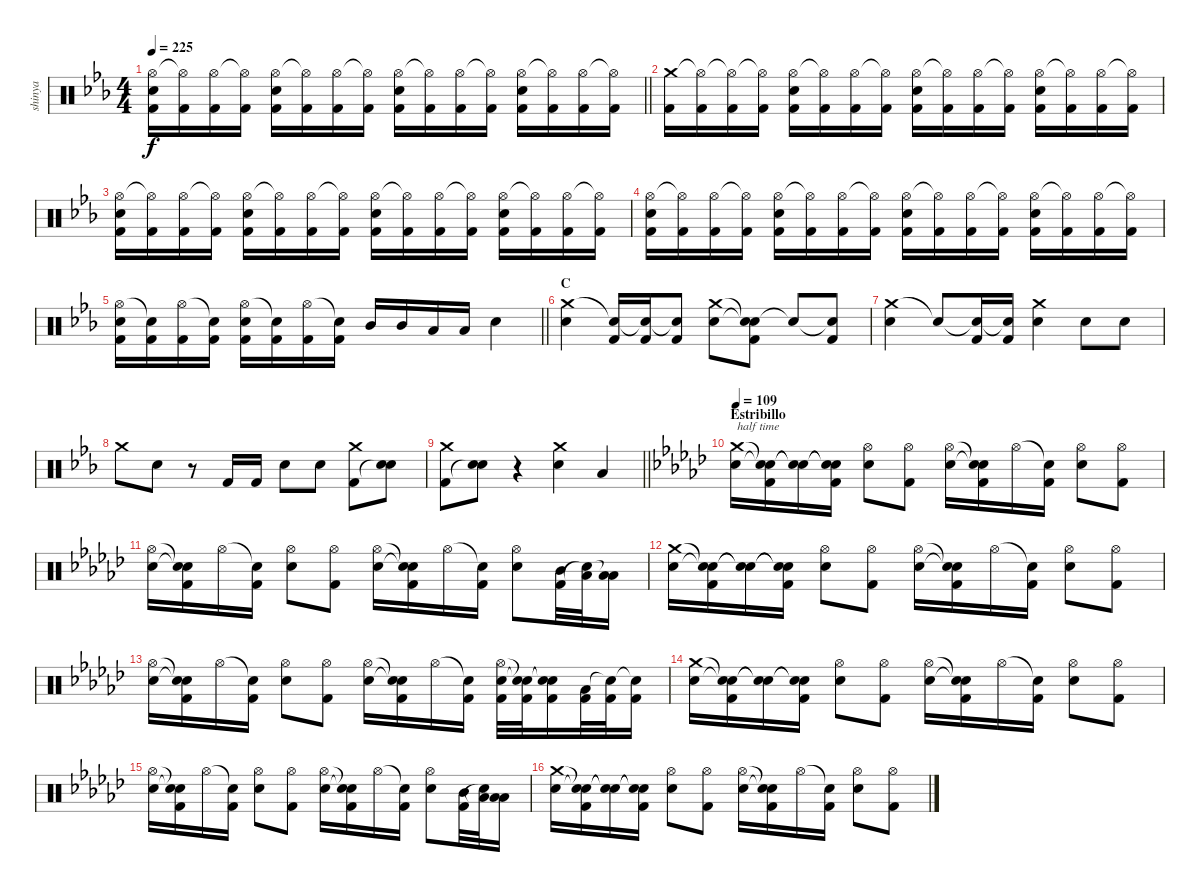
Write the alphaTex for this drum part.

\track ("shinya" "shinya") {instrument percussion}
\staff {score}
\articulation defaults
\ts (4 4)
\tempo 225
\clef neutral
\barLineRight lightlight
\ks eb
("Hi-Hat (open)" "Electric Snare (hit)" "Kick (hit) 2").16{dy f} ("Hi-Hat (open)"{t} "Kick (hit) 2").16 ("Hi-Hat (open)" "Kick (hit) 2").16 ("Hi-Hat (open)"{t} "Kick (hit) 2").16 ("Hi-Hat (open)" "Electric Snare (hit)" "Kick (hit) 2").16 ("Hi-Hat (open)"{t} "Kick (hit) 2").16 ("Hi-Hat (open)" "Kick (hit) 2").16 ("Hi-Hat (open)"{t} "Kick (hit) 2").16 ("Hi-Hat (open)" "Electric Snare (hit)" "Kick (hit) 2").16 ("Hi-Hat (open)"{t} "Kick (hit) 2").16 ("Hi-Hat (open)" "Kick (hit) 2").16 ("Hi-Hat (open)"{t} "Kick (hit) 2").16 ("Hi-Hat (open)" "Electric Snare (hit)" "Kick (hit) 2").16 ("Hi-Hat (open)"{t} "Kick (hit) 2").16 ("Hi-Hat (open)" "Kick (hit) 2").16 ("Hi-Hat (open)"{t} "Kick (hit) 2").16 |
("Crash medium (hit)" "Kick (hit) 2").16 ("Hi-Hat (open)"{t} "Kick (hit) 2").16 ("Hi-Hat (open)"{t} "Kick (hit) 2").16 ("Hi-Hat (open)"{t} "Kick (hit) 2").16 ("Hi-Hat (open)" "Electric Snare (hit)" "Kick (hit) 2").16 ("Hi-Hat (open)"{t} "Kick (hit) 2").16 ("Hi-Hat (open)" "Kick (hit) 2").16 ("Hi-Hat (open)"{t} "Kick (hit) 2").16 ("Hi-Hat (open)" "Electric Snare (hit)" "Kick (hit) 2").16 ("Hi-Hat (open)"{t} "Kick (hit) 2").16 ("Hi-Hat (open)" "Kick (hit) 2").16 ("Hi-Hat (open)"{t} "Kick (hit) 2").16 ("Hi-Hat (open)" "Electric Snare (hit)" "Kick (hit) 2").16 ("Hi-Hat (open)"{t} "Kick (hit) 2").16 ("Hi-Hat (open)" "Kick (hit) 2").16 ("Hi-Hat (open)"{t} "Kick (hit) 2").16 |
("Hi-Hat (open)" "Electric Snare (hit)" "Kick (hit) 2").16 ("Hi-Hat (open)"{t} "Kick (hit) 2").16 ("Hi-Hat (open)" "Kick (hit) 2").16 ("Hi-Hat (open)"{t} "Kick (hit) 2").16 ("Hi-Hat (open)" "Electric Snare (hit)" "Kick (hit) 2").16 ("Hi-Hat (open)"{t} "Kick (hit) 2").16 ("Hi-Hat (open)" "Kick (hit) 2").16 ("Hi-Hat (open)"{t} "Kick (hit) 2").16 ("Hi-Hat (open)" "Electric Snare (hit)" "Kick (hit) 2").16 ("Hi-Hat (open)"{t} "Kick (hit) 2").16 ("Hi-Hat (open)" "Kick (hit) 2").16 ("Hi-Hat (open)"{t} "Kick (hit) 2").16 ("Hi-Hat (open)" "Electric Snare (hit)" "Kick (hit) 2").16 ("Hi-Hat (open)"{t} "Kick (hit) 2").16 ("Hi-Hat (open)" "Kick (hit) 2").16 ("Hi-Hat (open)"{t} "Kick (hit) 2").16 |
("Hi-Hat (open)" "Electric Snare (hit)" "Kick (hit) 2").16 ("Hi-Hat (open)"{t} "Kick (hit) 2").16 ("Hi-Hat (open)" "Kick (hit) 2").16 ("Hi-Hat (open)"{t} "Kick (hit) 2").16 ("Hi-Hat (open)" "Electric Snare (hit)" "Kick (hit) 2").16 ("Hi-Hat (open)"{t} "Kick (hit) 2").16 ("Hi-Hat (open)" "Kick (hit) 2").16 ("Hi-Hat (open)"{t} "Kick (hit) 2").16 ("Hi-Hat (open)" "Electric Snare (hit)" "Kick (hit) 2").16 ("Hi-Hat (open)"{t} "Kick (hit) 2").16 ("Hi-Hat (open)" "Kick (hit) 2").16 ("Hi-Hat (open)"{t} "Kick (hit) 2").16 ("Hi-Hat (open)" "Electric Snare (hit)" "Kick (hit) 2").16 ("Hi-Hat (open)"{t} "Kick (hit) 2").16 ("Hi-Hat (open)" "Kick (hit) 2").16 ("Hi-Hat (open)"{t} "Kick (hit) 2").16 |
\barLineRight lightlight
("Hi-Hat (open)" "Electric Snare (hit)" "Kick (hit) 2").16 ("Snare (hit)"{t} "Kick (hit) 2").16 ("Hi-Hat (open)" "Kick (hit) 2").16 ("Snare (hit)"{t} "Kick (hit) 2").16 ("Hi-Hat (open)" "Electric Snare (hit)" "Kick (hit) 2").16 ("Snare (hit)"{t} "Kick (hit) 2").16 ("Hi-Hat (open)" "Kick (hit) 2").16 ("Snare (hit)"{t} "Kick (hit) 2").16 "Mid Tom (hit)".16 "Mid Tom (hit)".16 "Low Tom (hit)".16 "Low Floor Tom (hit)".16 "Electric Snare (hit)".4 |
\section ("" "C")
("Crash medium (hit)" "Electric Snare (hit)").4 ("Snare (hit)"{t} "Kick (hit) 2").16 ("Snare (hit)"{t} "Kick (hit) 2").16 ("Snare (hit)"{t} "Kick (hit) 2").8 ("Crash medium (hit)" "Electric Snare (hit)").8 ("Snare (hit)"{t} "Snare (hit)"{t} "Kick (hit) 2").8 "Snare (hit)"{t}.8 ("Snare (hit)"{t} "Kick (hit) 2").8 |
("Crash medium (hit)" "Electric Snare (hit)").4 "Snare (hit)"{t}.8 ("Snare (hit)"{t} "Kick (hit) 2").16 ("Snare (hit)"{t} "Kick (hit) 2").16 ("Crash medium (hit)" "Electric Snare (hit)").4 "Electric Snare (hit)".8 "Electric Snare (hit)".8 |
"Crash medium (hit)".8 "Electric Snare (hit)".8 r.8 "Kick (hit) 2".16 "Kick (hit) 2".16 "Electric Snare (hit)".8 "Electric Snare (hit)".8 ("Crash medium (hit)" "Kick (hit) 2").8 ("Electric Snare (hit)" "Snare (hit)"{t}).8 |
\barLineRight lightlight
("Crash medium (hit)" "Kick (hit) 2").8 ("Electric Snare (hit)" "Snare (hit)"{t}).8 r.4 ("Crash medium (hit)" "Electric Snare (hit)").4 "Low Floor Tom (hit)".4 |
\section ("" "Estribillo ")
\tempo 109
\ks ebminor
("Crash medium (hit)" "Electric Snare (hit)").16{txt "half time"} ("Snare (hit)"{t} "Snare (hit)"{t} "Kick (hit) 2").16 ("Snare (hit)"{t} "Snare (hit)"{t}).16 ("Snare (hit)"{t} "Snare (hit)"{t} "Kick (hit) 2").16 ("Hi-Hat (open)" "Electric Snare (hit)").8 ("Hi-Hat (open)" "Kick (hit) 2").8 ("Hi-Hat (open)" "Electric Snare (hit)").16 ("Snare (hit)"{t} "Snare (hit)"{t} "Kick (hit) 2").16 "Hi-Hat (open)".16 ("Snare (hit)"{t} "Kick (hit) 2").16 ("Hi-Hat (open)" "Electric Snare (hit)").8 ("Hi-Hat (open)" "Kick (hit) 2").8 |
("Hi-Hat (open)" "Electric Snare (hit)").16 ("Snare (hit)"{t} "Snare (hit)"{t} "Kick (hit) 2").16 "Hi-Hat (open)".16 ("Snare (hit)"{t} "Kick (hit) 2").16 ("Hi-Hat (open)" "Electric Snare (hit)").8 ("Hi-Hat (open)" "Kick (hit) 2").8 ("Hi-Hat (open)" "Electric Snare (hit)").16 ("Snare (hit)"{t} "Snare (hit)"{t} "Kick (hit) 2").16 "Hi-Hat (open)".16 ("Snare (hit)"{t} "Kick (hit) 2").16 ("Hi-Hat (open)" "Electric Snare (hit)").8 ("Mid Tom (hit)" "Kick (hit) 2").32 ("Low Tom (hit)" "Snare (hit)"{t}).32 ("Low Floor Tom (hit)" "Low Floor Tom (hit)"{t}).16 |
("Crash medium (hit)" "Electric Snare (hit)").16 ("Snare (hit)"{t} "Snare (hit)"{t} "Kick (hit) 2").16 ("Snare (hit)"{t} "Snare (hit)"{t}).16 ("Snare (hit)"{t} "Snare (hit)"{t} "Kick (hit) 2").16 ("Hi-Hat (open)" "Electric Snare (hit)").8 ("Hi-Hat (open)" "Kick (hit) 2").8 ("Hi-Hat (open)" "Electric Snare (hit)").16 ("Snare (hit)"{t} "Snare (hit)"{t} "Kick (hit) 2").16 "Hi-Hat (open)".16 ("Snare (hit)"{t} "Kick (hit) 2").16 ("Hi-Hat (open)" "Electric Snare (hit)").8 ("Hi-Hat (open)" "Kick (hit) 2").8 |
("Hi-Hat (open)" "Electric Snare (hit)").16 ("Snare (hit)"{t} "Snare (hit)"{t} "Kick (hit) 2").16 "Hi-Hat (open)".16 ("Snare (hit)"{t} "Kick (hit) 2").16 ("Hi-Hat (open)" "Electric Snare (hit)").8 ("Hi-Hat (open)" "Kick (hit) 2").8 ("Hi-Hat (open)" "Electric Snare (hit)").16 ("Snare (hit)"{t} "Snare (hit)"{t} "Kick (hit) 2").16 "Hi-Hat (open)".16 ("Snare (hit)"{t} "Kick (hit) 2").16 ("Hi-Hat (open)" "Electric Snare (hit)" "Kick (hit) 2").32 ("Snare (hit)"{t} "Snare (hit)"{t} "Kick (hit) 2").32 ("Snare (hit)"{t} "Snare (hit)"{t} "Kick (hit) 2").16 ("Low Floor Tom (hit)" "Kick (hit) 2").32 ("Snare (hit)"{t} "Kick (hit) 2").32 ("Snare (hit)"{t} "Kick (hit) 2").16 |
("Crash medium (hit)" "Electric Snare (hit)").16 ("Snare (hit)"{t} "Snare (hit)"{t} "Kick (hit) 2").16 ("Snare (hit)"{t} "Snare (hit)"{t}).16 ("Snare (hit)"{t} "Snare (hit)"{t} "Kick (hit) 2").16 ("Hi-Hat (open)" "Electric Snare (hit)").8 ("Hi-Hat (open)" "Kick (hit) 2").8 ("Hi-Hat (open)" "Electric Snare (hit)").16 ("Snare (hit)"{t} "Snare (hit)"{t} "Kick (hit) 2").16 "Hi-Hat (open)".16 ("Snare (hit)"{t} "Kick (hit) 2").16 ("Hi-Hat (open)" "Electric Snare (hit)").8 ("Hi-Hat (open)" "Kick (hit) 2").8 |
("Hi-Hat (open)" "Electric Snare (hit)").16 ("Snare (hit)"{t} "Snare (hit)"{t} "Kick (hit) 2").16 "Hi-Hat (open)".16 ("Snare (hit)"{t} "Kick (hit) 2").16 ("Hi-Hat (open)" "Electric Snare (hit)").8 ("Hi-Hat (open)" "Kick (hit) 2").8 ("Hi-Hat (open)" "Electric Snare (hit)").16 ("Snare (hit)"{t} "Snare (hit)"{t} "Kick (hit) 2").16 "Hi-Hat (open)".16 ("Snare (hit)"{t} "Kick (hit) 2").16 ("Hi-Hat (open)" "Electric Snare (hit)").8 ("Mid Tom (hit)" "Kick (hit) 2").32 ("Low Tom (hit)" "Snare (hit)"{t}).32 ("Low Floor Tom (hit)" "Low Floor Tom (hit)"{t}).16 |
("Crash medium (hit)" "Electric Snare (hit)").16 ("Snare (hit)"{t} "Snare (hit)"{t} "Kick (hit) 2").16 ("Snare (hit)"{t} "Snare (hit)"{t}).16 ("Snare (hit)"{t} "Snare (hit)"{t} "Kick (hit) 2").16 ("Hi-Hat (open)" "Electric Snare (hit)").8 ("Hi-Hat (open)" "Kick (hit) 2").8 ("Hi-Hat (open)" "Electric Snare (hit)").16 ("Snare (hit)"{t} "Snare (hit)"{t} "Kick (hit) 2").16 "Hi-Hat (open)".16 ("Snare (hit)"{t} "Kick (hit) 2").16 ("Hi-Hat (open)" "Electric Snare (hit)").8 ("Hi-Hat (open)" "Kick (hit) 2").8
